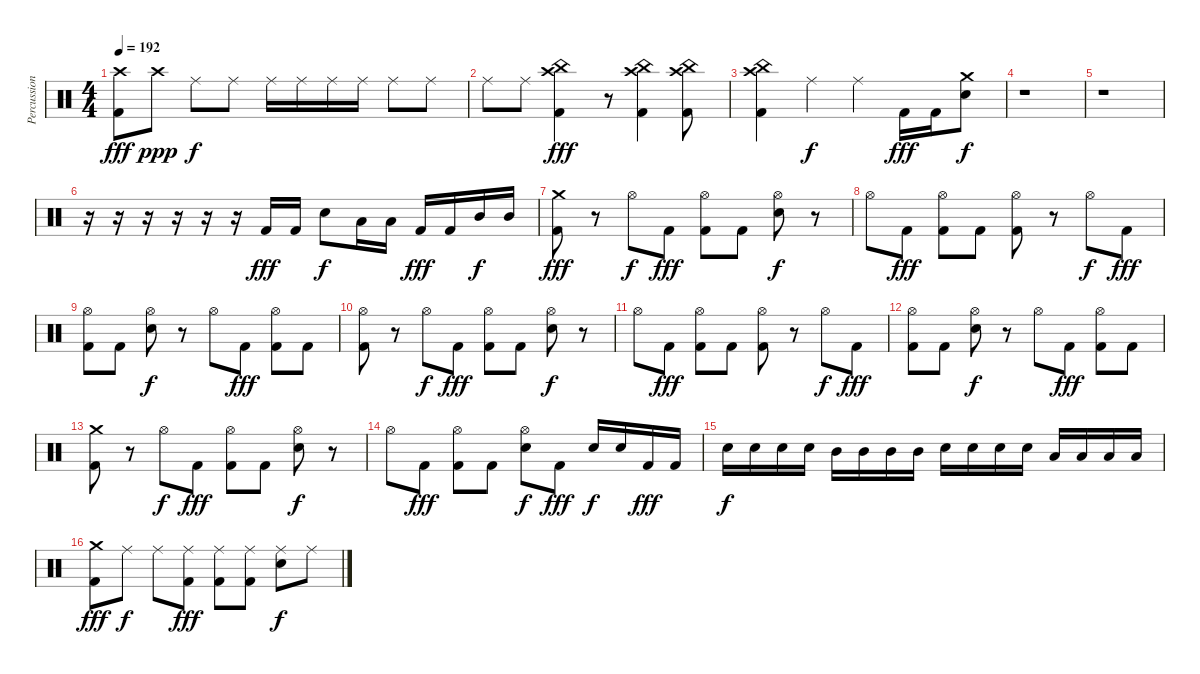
\track ("Percussion" "Percussion") {instrument percussion}
\staff {score}
\articulation defaults
\ts (4 4)
\tempo 192
\clef neutral
\ks c
("Crash high (hit)" "Kick (hit) 2").8{dy fff} "Crash high (hit)".8{dy ppp} "Ride (middle)".8{dy f} "Ride (middle)".8 "Ride (middle)".16 "Ride (middle)".16 "Ride (middle)".16 "Ride (middle)".16 "Ride (middle)".8 "Ride (middle)".8 |
"Ride (middle)".8 "Ride (middle)".8 ("Crash high (hit)" "China (hit)" "Kick (hit) 2").4{dy fff} r.8 ("Crash high (hit)" "China (hit)" "Kick (hit) 2").4 ("Crash high (hit)" "China (hit)" "Kick (hit) 2").8 |
("Crash high (hit)" "China (hit)" "Kick (hit) 2").4 "Ride (middle)".4{dy f} "Ride (middle)".4 "Kick (hit) 2".16{dy fff} "Kick (hit) 2".16 ("Crash medium (hit)" "Electric Snare (hit)").8{dy f} |
r.1 |
r.1 |
r.16 r.16 r.16 r.16 r.16 r.16 "Kick (hit) 2".16{dy fff} "Kick (hit) 2".16 "Electric Snare (hit)".8{dy f} "Low Tom (hit)".16 "Low Tom (hit)".16 "Kick (hit) 2".16{dy fff} "Kick (hit) 2".16 "Mid Tom (hit)".16{dy f} "Mid Tom (hit)".16 |
("Crash medium (hit)" "Kick (hit) 2").8{dy fff} r.8 "Hi-Hat (open)".8{dy f} "Kick (hit) 2".8{dy fff} ("Hi-Hat (open)" "Kick (hit) 2").8 "Kick (hit) 2".8 ("Hi-Hat (open)" "Electric Snare (hit)").8{dy f} r.8 |
"Hi-Hat (open)".8 "Kick (hit) 2".8{dy fff} ("Hi-Hat (open)" "Kick (hit) 2").8 "Kick (hit) 2".8 ("Hi-Hat (open)" "Kick (hit) 2").8 r.8 "Hi-Hat (open)".8{dy f} "Kick (hit) 2".8{dy fff} |
("Hi-Hat (open)" "Kick (hit) 2").8 "Kick (hit) 2".8 ("Hi-Hat (open)" "Electric Snare (hit)").8{dy f} r.8 "Hi-Hat (open)".8 "Kick (hit) 2".8{dy fff} ("Hi-Hat (open)" "Kick (hit) 2").8 "Kick (hit) 2".8 |
("Hi-Hat (open)" "Kick (hit) 2").8 r.8 "Hi-Hat (open)".8{dy f} "Kick (hit) 2".8{dy fff} ("Hi-Hat (open)" "Kick (hit) 2").8 "Kick (hit) 2".8 ("Hi-Hat (open)" "Electric Snare (hit)").8{dy f} r.8 |
"Hi-Hat (open)".8 "Kick (hit) 2".8{dy fff} ("Hi-Hat (open)" "Kick (hit) 2").8 "Kick (hit) 2".8 ("Hi-Hat (open)" "Kick (hit) 2").8 r.8 "Hi-Hat (open)".8{dy f} "Kick (hit) 2".8{dy fff} |
("Hi-Hat (open)" "Kick (hit) 2").8 "Kick (hit) 2".8 ("Hi-Hat (open)" "Electric Snare (hit)").8{dy f} r.8 "Hi-Hat (open)".8 "Kick (hit) 2".8{dy fff} ("Hi-Hat (open)" "Kick (hit) 2").8 "Kick (hit) 2".8 |
("Crash medium (hit)" "Kick (hit) 2").8 r.8 "Hi-Hat (open)".8{dy f} "Kick (hit) 2".8{dy fff} ("Hi-Hat (open)" "Kick (hit) 2").8 "Kick (hit) 2".8 ("Hi-Hat (open)" "Electric Snare (hit)").8{dy f} r.8 |
"Hi-Hat (open)".8 "Kick (hit) 2".8{dy fff} ("Hi-Hat (open)" "Kick (hit) 2").8 "Kick (hit) 2".8 ("Hi-Hat (open)" "Electric Snare (hit)").8{dy f} "Kick (hit) 2".8{dy fff} "Electric Snare (hit)".16{dy f} "Electric Snare (hit)".16 "Kick (hit) 2".16{dy fff} "Kick (hit) 2".16 |
"Electric Snare (hit)".16{dy f} "Electric Snare (hit)".16 "Electric Snare (hit)".16 "Electric Snare (hit)".16 "Mid Tom (hit)".16 "Mid Tom (hit)".16 "Mid Tom (hit)".16 "Mid Tom (hit)".16 "Electric Snare (hit)".16 "Electric Snare (hit)".16 "Electric Snare (hit)".16 "Electric Snare (hit)".16 "Low Tom (hit)".16 "Low Tom (hit)".16 "Low Tom (hit)".16 "Low Tom (hit)".16 |
("Crash medium (hit)" "Kick (hit) 2").8{dy fff} "Ride (middle)".8{dy f} "Ride (middle)".8 ("Ride (middle)" "Kick (hit) 2").8{dy fff} ("Ride (middle)" "Kick (hit) 2").8 ("Ride (middle)" "Kick (hit) 2").8 ("Ride (middle)" "Electric Snare (hit)").8{dy f} "Ride (middle)".8
